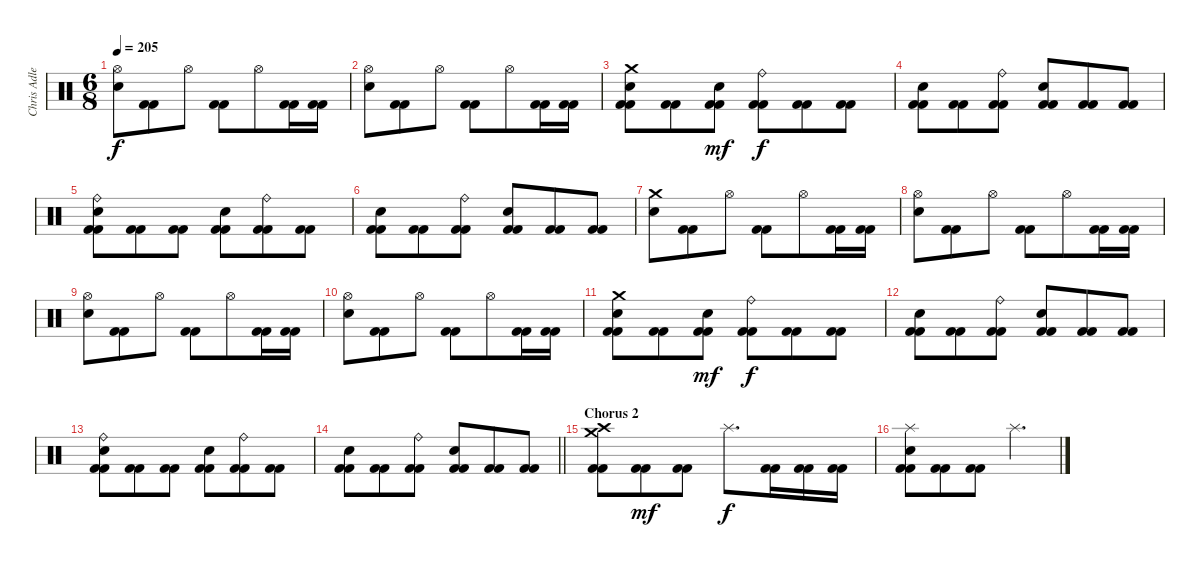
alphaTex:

\track ("Chris Adler" "Chris Adle") {instrument percussion}
\staff {score}
\articulation defaults
\ts (6 8)
\tempo 205
\clef neutral
\ks c
("Hi-Hat (open)" "Electric Snare (hit)").8{dy f} ("Kick (hit) 2" "Kick (hit) 2").8 "Hi-Hat (open)".8 ("Kick (hit) 2" "Kick (hit) 2").8 "Hi-Hat (open)".8 ("Kick (hit) 2" "Kick (hit) 2").16 ("Kick (hit) 2" "Kick (hit) 2").16 |
("Hi-Hat (open)" "Electric Snare (hit)").8 ("Kick (hit) 2" "Kick (hit) 2").8 "Hi-Hat (open)".8 ("Kick (hit) 2" "Kick (hit) 2").8 "Hi-Hat (open)".8 ("Kick (hit) 2" "Kick (hit) 2").16 ("Kick (hit) 2" "Kick (hit) 2").16 |
("Crash medium (hit)" "Electric Snare (hit)" "Kick (hit) 2" "Kick (hit) 2").8 ("Kick (hit) 2" "Kick (hit) 2").8 ("Electric Snare (hit)" "Kick (hit) 2" "Kick (hit) 2").8{dy mf} ("Ride (bell)" "Kick (hit) 2" "Kick (hit) 2").8{dy f} ("Kick (hit) 2" "Kick (hit) 2").8 ("Kick (hit) 2" "Kick (hit) 2").8 |
("Electric Snare (hit)" "Kick (hit) 2" "Kick (hit) 2").8 ("Kick (hit) 2" "Kick (hit) 2").8 ("Ride (bell)" "Kick (hit) 2" "Kick (hit) 2").8 ("Electric Snare (hit)" "Kick (hit) 2" "Kick (hit) 2").8 ("Kick (hit) 2" "Kick (hit) 2").8 ("Kick (hit) 2" "Kick (hit) 2").8 |
("Ride (bell)" "Electric Snare (hit)" "Kick (hit) 2" "Kick (hit) 2").8 ("Kick (hit) 2" "Kick (hit) 2").8 ("Kick (hit) 2" "Kick (hit) 2").8 ("Electric Snare (hit)" "Kick (hit) 2" "Kick (hit) 2").8 ("Ride (bell)" "Kick (hit) 2" "Kick (hit) 2").8 ("Kick (hit) 2" "Kick (hit) 2").8 |
("Electric Snare (hit)" "Kick (hit) 2" "Kick (hit) 2").8 ("Kick (hit) 2" "Kick (hit) 2").8 ("Ride (bell)" "Kick (hit) 2" "Kick (hit) 2").8 ("Electric Snare (hit)" "Kick (hit) 2" "Kick (hit) 2").8 ("Kick (hit) 2" "Kick (hit) 2").8 ("Kick (hit) 2" "Kick (hit) 2").8 |
("Crash medium (hit)" "Electric Snare (hit)").8 ("Kick (hit) 2" "Kick (hit) 2").8 "Hi-Hat (open)".8 ("Kick (hit) 2" "Kick (hit) 2").8 "Hi-Hat (open)".8 ("Kick (hit) 2" "Kick (hit) 2").16 ("Kick (hit) 2" "Kick (hit) 2").16 |
("Hi-Hat (open)" "Electric Snare (hit)").8 ("Kick (hit) 2" "Kick (hit) 2").8 "Hi-Hat (open)".8 ("Kick (hit) 2" "Kick (hit) 2").8 "Hi-Hat (open)".8 ("Kick (hit) 2" "Kick (hit) 2").16 ("Kick (hit) 2" "Kick (hit) 2").16 |
("Hi-Hat (open)" "Electric Snare (hit)").8 ("Kick (hit) 2" "Kick (hit) 2").8 "Hi-Hat (open)".8 ("Kick (hit) 2" "Kick (hit) 2").8 "Hi-Hat (open)".8 ("Kick (hit) 2" "Kick (hit) 2").16 ("Kick (hit) 2" "Kick (hit) 2").16 |
("Hi-Hat (open)" "Electric Snare (hit)").8 ("Kick (hit) 2" "Kick (hit) 2").8 "Hi-Hat (open)".8 ("Kick (hit) 2" "Kick (hit) 2").8 "Hi-Hat (open)".8 ("Kick (hit) 2" "Kick (hit) 2").16 ("Kick (hit) 2" "Kick (hit) 2").16 |
("Crash medium (hit)" "Electric Snare (hit)" "Kick (hit) 2" "Kick (hit) 2").8 ("Kick (hit) 2" "Kick (hit) 2").8 ("Electric Snare (hit)" "Kick (hit) 2" "Kick (hit) 2").8{dy mf} ("Ride (bell)" "Kick (hit) 2" "Kick (hit) 2").8{dy f} ("Kick (hit) 2" "Kick (hit) 2").8 ("Kick (hit) 2" "Kick (hit) 2").8 |
("Electric Snare (hit)" "Kick (hit) 2" "Kick (hit) 2").8 ("Kick (hit) 2" "Kick (hit) 2").8 ("Ride (bell)" "Kick (hit) 2" "Kick (hit) 2").8 ("Electric Snare (hit)" "Kick (hit) 2" "Kick (hit) 2").8 ("Kick (hit) 2" "Kick (hit) 2").8 ("Kick (hit) 2" "Kick (hit) 2").8 |
("Ride (bell)" "Electric Snare (hit)" "Kick (hit) 2" "Kick (hit) 2").8 ("Kick (hit) 2" "Kick (hit) 2").8 ("Kick (hit) 2" "Kick (hit) 2").8 ("Electric Snare (hit)" "Kick (hit) 2" "Kick (hit) 2").8 ("Ride (bell)" "Kick (hit) 2" "Kick (hit) 2").8 ("Kick (hit) 2" "Kick (hit) 2").8 |
\barLineRight lightlight
("Electric Snare (hit)" "Kick (hit) 2" "Kick (hit) 2").8 ("Kick (hit) 2" "Kick (hit) 2").8 ("Ride (bell)" "Kick (hit) 2" "Kick (hit) 2").8 ("Electric Snare (hit)" "Kick (hit) 2" "Kick (hit) 2").8 ("Kick (hit) 2" "Kick (hit) 2").8 ("Kick (hit) 2" "Kick (hit) 2").8 |
\section ("" "Chorus 2")
("Crash medium (hit)" "Crash high (hit)" "Kick (hit) 2" "Kick (hit) 2").8 ("Kick (hit) 2" "Kick (hit) 2").8{dy mf} ("Kick (hit) 2" "Kick (hit) 2").8 "Splash (hit)".8{d dy f} ("Kick (hit) 2" "Kick (hit) 2").16 ("Kick (hit) 2" "Kick (hit) 2").16 ("Kick (hit) 2" "Kick (hit) 2").16 |
("Splash (hit)" "Electric Snare (hit)" "Kick (hit) 2" "Kick (hit) 2").8 ("Kick (hit) 2" "Kick (hit) 2").8 ("Kick (hit) 2" "Kick (hit) 2").8 "Splash (hit)".4{d}
